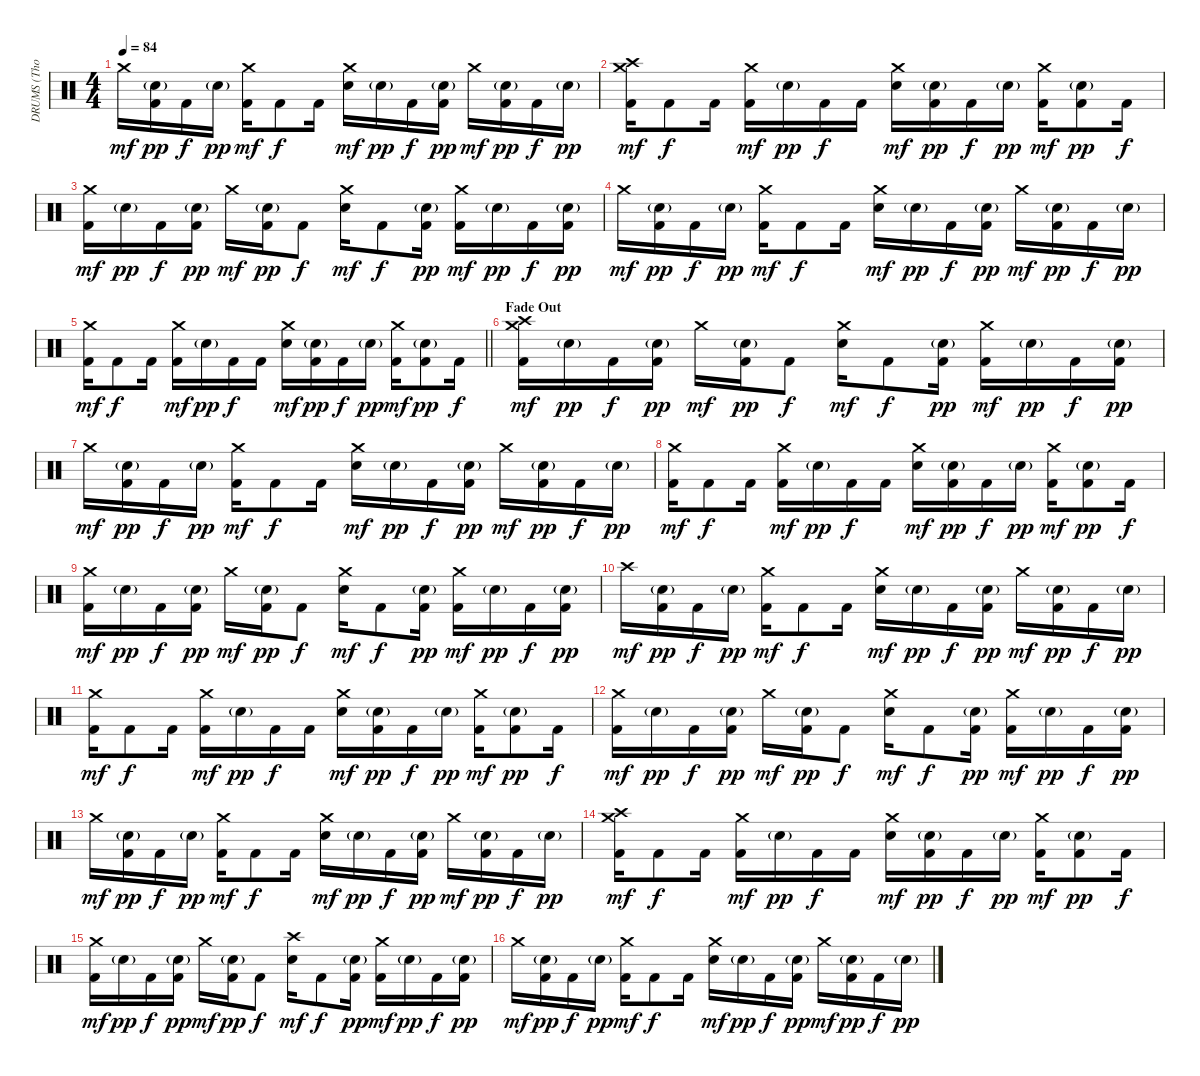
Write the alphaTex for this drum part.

\track ("DRUMS (Thomas Haake)" "DRUMS (Tho") {instrument percussion}
\staff {score}
\articulation defaults
\ts (4 4)
\tempo 84
\clef neutral
\ks c "Crash medium (hit)".16{dy mf}
("Electric Snare (hit)"{g} "Kick (hit) 2").16{dy pp} "Kick (hit) 2".16{dy f} "Electric Snare (hit)"{g}.16{dy pp} ("Crash medium (hit)" "Kick (hit) 2").16{dy mf} "Kick (hit) 2".8{dy f} "Kick (hit) 2".16 ("Crash medium (hit)" "Electric Snare (hit)").16{dy mf} "Electric Snare (hit)"{g}.16{dy pp} "Kick (hit) 2".16{dy f} ("Electric Snare (hit)"{g} "Kick (hit) 2").16{dy pp} "Crash medium (hit)".16{dy mf} ("Electric Snare (hit)"{g} "Kick (hit) 2").16{dy pp} "Kick (hit) 2".16{dy f} "Electric Snare (hit)"{g}.16{dy pp} |
("Crash medium (hit)" "Crash high (hit)" "Kick (hit) 2").16{dy mf} "Kick (hit) 2".8{dy f} "Kick (hit) 2".16 ("Crash medium (hit)" "Kick (hit) 2").16{dy mf} "Electric Snare (hit)"{g}.16{dy pp} "Kick (hit) 2".16{dy f} "Kick (hit) 2".16 ("Crash medium (hit)" "Electric Snare (hit)").16{dy mf} ("Electric Snare (hit)"{g} "Kick (hit) 2").16{dy pp} "Kick (hit) 2".16{dy f} "Electric Snare (hit)"{g}.16{dy pp} ("Crash medium (hit)" "Kick (hit) 2").16{dy mf} ("Electric Snare (hit)"{g} "Kick (hit) 2").8{dy pp} "Kick (hit) 2".16{dy f} |
("Crash medium (hit)" "Kick (hit) 2").16{dy mf} "Electric Snare (hit)"{g}.16{dy pp} "Kick (hit) 2".16{dy f} ("Electric Snare (hit)"{g} "Kick (hit) 2").16{dy pp} "Crash medium (hit)".16{dy mf} ("Electric Snare (hit)"{g} "Kick (hit) 2").16{dy pp} "Kick (hit) 2".8{dy f} ("Crash medium (hit)" "Electric Snare (hit)").16{dy mf} "Kick (hit) 2".8{dy f} ("Electric Snare (hit)"{g} "Kick (hit) 2").16{dy pp} ("Crash medium (hit)" "Kick (hit) 2").16{dy mf} "Electric Snare (hit)"{g}.16{dy pp} "Kick (hit) 2".16{dy f} ("Electric Snare (hit)"{g} "Kick (hit) 2").16{dy pp} |
"Crash medium (hit)".16{dy mf} ("Electric Snare (hit)"{g} "Kick (hit) 2").16{dy pp} "Kick (hit) 2".16{dy f} "Electric Snare (hit)"{g}.16{dy pp} ("Crash medium (hit)" "Kick (hit) 2").16{dy mf} "Kick (hit) 2".8{dy f} "Kick (hit) 2".16 ("Crash medium (hit)" "Electric Snare (hit)").16{dy mf} "Electric Snare (hit)"{g}.16{dy pp} "Kick (hit) 2".16{dy f} ("Electric Snare (hit)"{g} "Kick (hit) 2").16{dy pp} "Crash medium (hit)".16{dy mf} ("Electric Snare (hit)"{g} "Kick (hit) 2").16{dy pp} "Kick (hit) 2".16{dy f} "Electric Snare (hit)"{g}.16{dy pp} |
\barLineRight lightlight
("Crash medium (hit)" "Kick (hit) 2").16{dy mf} "Kick (hit) 2".8{dy f} "Kick (hit) 2".16 ("Crash medium (hit)" "Kick (hit) 2").16{dy mf} "Electric Snare (hit)"{g}.16{dy pp} "Kick (hit) 2".16{dy f} "Kick (hit) 2".16 ("Crash medium (hit)" "Electric Snare (hit)").16{dy mf} ("Electric Snare (hit)"{g} "Kick (hit) 2").16{dy pp} "Kick (hit) 2".16{dy f} "Electric Snare (hit)"{g}.16{dy pp} ("Crash medium (hit)" "Kick (hit) 2").16{dy mf} ("Electric Snare (hit)"{g} "Kick (hit) 2").8{dy pp} "Kick (hit) 2".16{dy f} |
\section ("" "Fade Out")
("Crash medium (hit)" "Crash high (hit)" "Kick (hit) 2").16{dy mf volume 11} "Electric Snare (hit)"{g}.16{dy pp} "Kick (hit) 2".16{dy f} ("Electric Snare (hit)"{g} "Kick (hit) 2").16{dy pp} "Crash medium (hit)".16{dy mf} ("Electric Snare (hit)"{g} "Kick (hit) 2").16{dy pp} "Kick (hit) 2".8{dy f} ("Crash medium (hit)" "Electric Snare (hit)").16{dy mf} "Kick (hit) 2".8{dy f} ("Electric Snare (hit)"{g} "Kick (hit) 2").16{dy pp} ("Crash medium (hit)" "Kick (hit) 2").16{dy mf} "Electric Snare (hit)"{g}.16{dy pp} "Kick (hit) 2".16{dy f} ("Electric Snare (hit)"{g} "Kick (hit) 2").16{dy pp} |
"Crash medium (hit)".16{dy mf} ("Electric Snare (hit)"{g} "Kick (hit) 2").16{dy pp} "Kick (hit) 2".16{dy f} "Electric Snare (hit)"{g}.16{dy pp} ("Crash medium (hit)" "Kick (hit) 2").16{dy mf} "Kick (hit) 2".8{dy f} "Kick (hit) 2".16 ("Crash medium (hit)" "Electric Snare (hit)").16{dy mf} "Electric Snare (hit)"{g}.16{dy pp} "Kick (hit) 2".16{dy f} ("Electric Snare (hit)"{g} "Kick (hit) 2").16{dy pp} "Crash medium (hit)".16{dy mf} ("Electric Snare (hit)"{g} "Kick (hit) 2").16{dy pp} "Kick (hit) 2".16{dy f} "Electric Snare (hit)"{g}.16{dy pp} |
("Crash medium (hit)" "Kick (hit) 2").16{dy mf} "Kick (hit) 2".8{dy f} "Kick (hit) 2".16 ("Crash medium (hit)" "Kick (hit) 2").16{dy mf} "Electric Snare (hit)"{g}.16{dy pp} "Kick (hit) 2".16{dy f} "Kick (hit) 2".16 ("Crash medium (hit)" "Electric Snare (hit)").16{dy mf} ("Electric Snare (hit)"{g} "Kick (hit) 2").16{dy pp} "Kick (hit) 2".16{dy f} "Electric Snare (hit)"{g}.16{dy pp} ("Crash medium (hit)" "Kick (hit) 2").16{dy mf} ("Electric Snare (hit)"{g} "Kick (hit) 2").8{dy pp} "Kick (hit) 2".16{dy f} |
("Crash medium (hit)" "Kick (hit) 2").16{dy mf} "Electric Snare (hit)"{g}.16{dy pp} "Kick (hit) 2".16{dy f} ("Electric Snare (hit)"{g} "Kick (hit) 2").16{dy pp} "Crash medium (hit)".16{dy mf} ("Electric Snare (hit)"{g} "Kick (hit) 2").16{dy pp} "Kick (hit) 2".8{dy f} ("Crash medium (hit)" "Electric Snare (hit)").16{dy mf} "Kick (hit) 2".8{dy f} ("Electric Snare (hit)"{g} "Kick (hit) 2").16{dy pp} ("Crash medium (hit)" "Kick (hit) 2").16{dy mf} "Electric Snare (hit)"{g}.16{dy pp} "Kick (hit) 2".16{dy f} ("Electric Snare (hit)"{g} "Kick (hit) 2").16{dy pp} |
"Crash high (hit)".16{dy mf volume 9} ("Electric Snare (hit)"{g} "Kick (hit) 2").16{dy pp} "Kick (hit) 2".16{dy f} "Electric Snare (hit)"{g}.16{dy pp} ("Crash medium (hit)" "Kick (hit) 2").16{dy mf} "Kick (hit) 2".8{dy f} "Kick (hit) 2".16 ("Crash medium (hit)" "Electric Snare (hit)").16{dy mf} "Electric Snare (hit)"{g}.16{dy pp} "Kick (hit) 2".16{dy f} ("Electric Snare (hit)"{g} "Kick (hit) 2").16{dy pp} "Crash medium (hit)".16{dy mf} ("Electric Snare (hit)"{g} "Kick (hit) 2").16{dy pp} "Kick (hit) 2".16{dy f} "Electric Snare (hit)"{g}.16{dy pp} |
("Crash medium (hit)" "Kick (hit) 2").16{dy mf} "Kick (hit) 2".8{dy f} "Kick (hit) 2".16 ("Crash medium (hit)" "Kick (hit) 2").16{dy mf} "Electric Snare (hit)"{g}.16{dy pp} "Kick (hit) 2".16{dy f} "Kick (hit) 2".16 ("Crash medium (hit)" "Electric Snare (hit)").16{dy mf} ("Electric Snare (hit)"{g} "Kick (hit) 2").16{dy pp} "Kick (hit) 2".16{dy f} "Electric Snare (hit)"{g}.16{dy pp} ("Crash medium (hit)" "Kick (hit) 2").16{dy mf} ("Electric Snare (hit)"{g} "Kick (hit) 2").8{dy pp} "Kick (hit) 2".16{dy f} |
("Crash medium (hit)" "Kick (hit) 2").16{dy mf} "Electric Snare (hit)"{g}.16{dy pp} "Kick (hit) 2".16{dy f} ("Electric Snare (hit)"{g} "Kick (hit) 2").16{dy pp} "Crash medium (hit)".16{dy mf} ("Electric Snare (hit)"{g} "Kick (hit) 2").16{dy pp} "Kick (hit) 2".8{dy f} ("Crash medium (hit)" "Electric Snare (hit)").16{dy mf} "Kick (hit) 2".8{dy f} ("Electric Snare (hit)"{g} "Kick (hit) 2").16{dy pp} ("Crash medium (hit)" "Kick (hit) 2").16{dy mf} "Electric Snare (hit)"{g}.16{dy pp} "Kick (hit) 2".16{dy f} ("Electric Snare (hit)"{g} "Kick (hit) 2").16{dy pp} |
"Crash medium (hit)".16{dy mf} ("Electric Snare (hit)"{g} "Kick (hit) 2").16{dy pp} "Kick (hit) 2".16{dy f} "Electric Snare (hit)"{g}.16{dy pp} ("Crash medium (hit)" "Kick (hit) 2").16{dy mf} "Kick (hit) 2".8{dy f} "Kick (hit) 2".16 ("Crash medium (hit)" "Electric Snare (hit)").16{dy mf} "Electric Snare (hit)"{g}.16{dy pp} "Kick (hit) 2".16{dy f} ("Electric Snare (hit)"{g} "Kick (hit) 2").16{dy pp} "Crash medium (hit)".16{dy mf} ("Electric Snare (hit)"{g} "Kick (hit) 2").16{dy pp} "Kick (hit) 2".16{dy f} "Electric Snare (hit)"{g}.16{dy pp} |
("Crash medium (hit)" "Crash high (hit)" "Kick (hit) 2").16{dy mf volume 6} "Kick (hit) 2".8{dy f} "Kick (hit) 2".16 ("Crash medium (hit)" "Kick (hit) 2").16{dy mf} "Electric Snare (hit)"{g}.16{dy pp} "Kick (hit) 2".16{dy f} "Kick (hit) 2".16 ("Crash medium (hit)" "Electric Snare (hit)").16{dy mf} ("Electric Snare (hit)"{g} "Kick (hit) 2").16{dy pp} "Kick (hit) 2".16{dy f} "Electric Snare (hit)"{g}.16{dy pp} ("Crash medium (hit)" "Kick (hit) 2").16{dy mf} ("Electric Snare (hit)"{g} "Kick (hit) 2").8{dy pp} "Kick (hit) 2".16{dy f} |
("Crash medium (hit)" "Kick (hit) 2").16{dy mf} "Electric Snare (hit)"{g}.16{dy pp} "Kick (hit) 2".16{dy f} ("Electric Snare (hit)"{g} "Kick (hit) 2").16{dy pp} "Crash medium (hit)".16{dy mf} ("Electric Snare (hit)"{g} "Kick (hit) 2").16{dy pp} "Kick (hit) 2".8{dy f} ("Crash high (hit)" "Electric Snare (hit)").16{dy mf} "Kick (hit) 2".8{dy f} ("Electric Snare (hit)"{g} "Kick (hit) 2").16{dy pp} ("Crash medium (hit)" "Kick (hit) 2").16{dy mf} "Electric Snare (hit)"{g}.16{dy pp} "Kick (hit) 2".16{dy f} ("Electric Snare (hit)"{g} "Kick (hit) 2").16{dy pp} |
"Crash medium (hit)".16{dy mf} ("Electric Snare (hit)"{g} "Kick (hit) 2").16{dy pp} "Kick (hit) 2".16{dy f} "Electric Snare (hit)"{g}.16{dy pp} ("Crash medium (hit)" "Kick (hit) 2").16{dy mf} "Kick (hit) 2".8{dy f} "Kick (hit) 2".16 ("Crash medium (hit)" "Electric Snare (hit)").16{dy mf} "Electric Snare (hit)"{g}.16{dy pp} "Kick (hit) 2".16{dy f} ("Electric Snare (hit)"{g} "Kick (hit) 2").16{dy pp} "Crash medium (hit)".16{dy mf} ("Electric Snare (hit)"{g} "Kick (hit) 2").16{dy pp} "Kick (hit) 2".16{dy f} "Electric Snare (hit)"{g}.16{dy pp}
